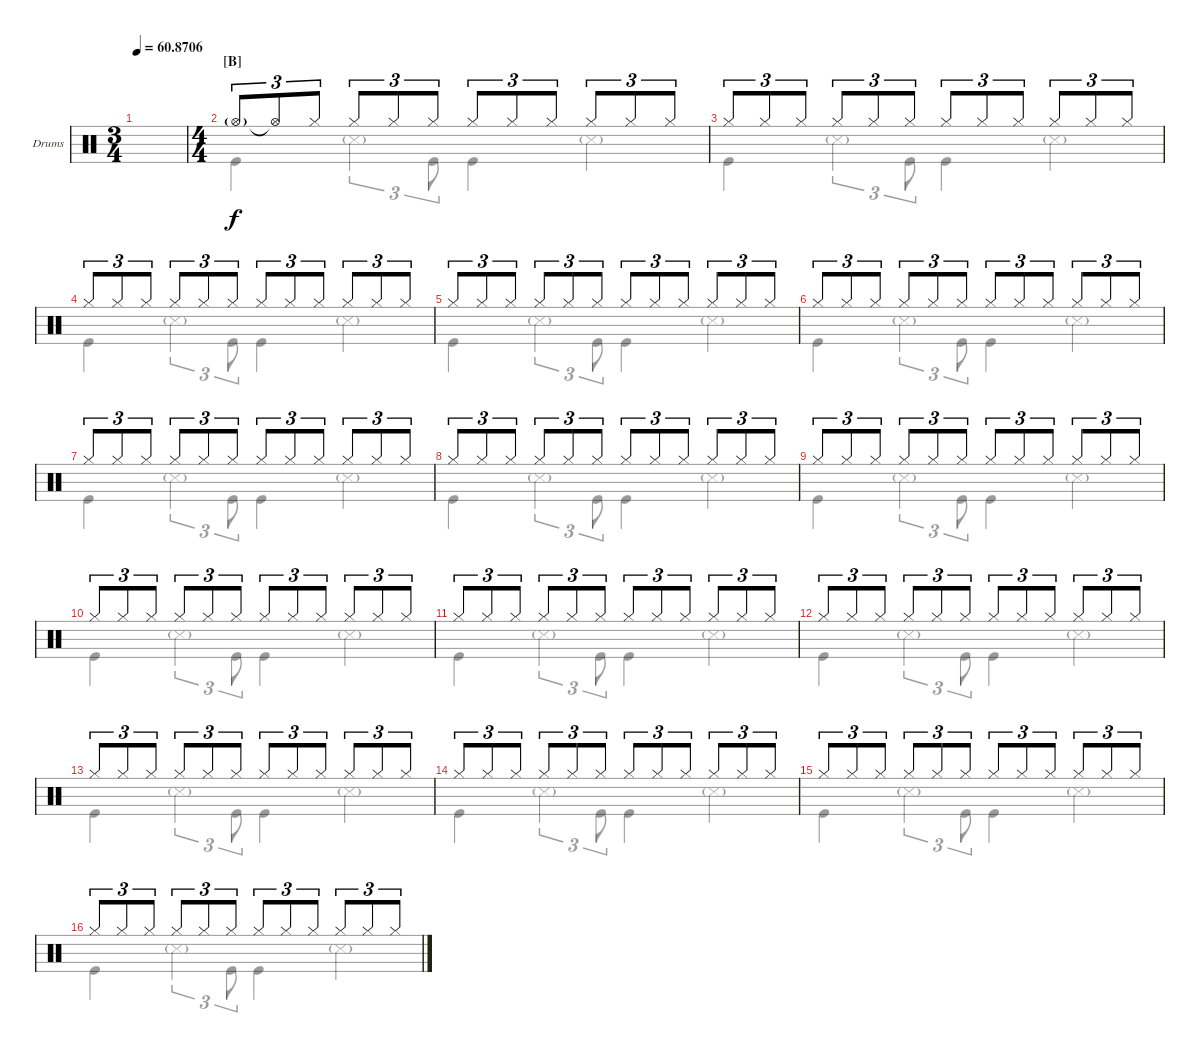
\defaultSystemsLayout 4
\bracketExtendMode nobrackets
\firstSystemTrackNameOrientation horizontal
\otherSystemsTrackNameOrientation horizontal
\track ("Drumkit" "Drums") {instrument percussion}
\staff {score}
\articulation defaults
\voice
\ts (3 4)
\tempo
60.8706
\accidentals auto
\clef neutral
\ottava regular
\simile none
\ks c
|
\ts (4 4)
\section ("B" "")
"Hi-Hat (open)"{g}.8{tu (3 2)} "Hi-Hat (open)"{t}.8{tu (3 2)} "Hi-Hat (closed)".8{tu (3 2)} "Hi-Hat (closed)".8{tu (3 2)} "Hi-Hat (closed)".8{tu (3 2)} "Hi-Hat (closed)".8{tu (3 2)} "Hi-Hat (closed)".8{tu (3 2)} "Hi-Hat (closed)".8{tu (3 2)} "Hi-Hat (closed)".8{tu (3 2)} "Hi-Hat (closed)".8{tu (3 2)} "Hi-Hat (closed)".8{tu (3 2)} "Hi-Hat (closed)".8{tu (3 2)} |
"Hi-Hat (closed)".8{tu (3 2)} "Hi-Hat (closed)".8{tu (3 2)} "Hi-Hat (closed)".8{tu (3 2)} "Hi-Hat (closed)".8{tu (3 2)} "Hi-Hat (closed)".8{tu (3 2)} "Hi-Hat (closed)".8{tu (3 2)} "Hi-Hat (closed)".8{tu (3 2)} "Hi-Hat (closed)".8{tu (3 2)} "Hi-Hat (closed)".8{tu (3 2)} "Hi-Hat (closed)".8{tu (3 2)} "Hi-Hat (closed)".8{tu (3 2)} "Hi-Hat (closed)".8{tu (3 2)} |
"Hi-Hat (closed)".8{tu (3 2)} "Hi-Hat (closed)".8{tu (3 2)} "Hi-Hat (closed)".8{tu (3 2)} "Hi-Hat (closed)".8{tu (3 2)} "Hi-Hat (closed)".8{tu (3 2)} "Hi-Hat (closed)".8{tu (3 2)} "Hi-Hat (closed)".8{tu (3 2)} "Hi-Hat (closed)".8{tu (3 2)} "Hi-Hat (closed)".8{tu (3 2)} "Hi-Hat (closed)".8{tu (3 2)} "Hi-Hat (closed)".8{tu (3 2)} "Hi-Hat (closed)".8{tu (3 2)} |
"Hi-Hat (closed)".8{tu (3 2)} "Hi-Hat (closed)".8{tu (3 2)} "Hi-Hat (closed)".8{tu (3 2)} "Hi-Hat (closed)".8{tu (3 2)} "Hi-Hat (closed)".8{tu (3 2)} "Hi-Hat (closed)".8{tu (3 2)} "Hi-Hat (closed)".8{tu (3 2)} "Hi-Hat (closed)".8{tu (3 2)} "Hi-Hat (closed)".8{tu (3 2)} "Hi-Hat (closed)".8{tu (3 2)} "Hi-Hat (closed)".8{tu (3 2)} "Hi-Hat (closed)".8{tu (3 2)} |
"Hi-Hat (closed)".8{tu (3 2)} "Hi-Hat (closed)".8{tu (3 2)} "Hi-Hat (closed)".8{tu (3 2)} "Hi-Hat (closed)".8{tu (3 2)} "Hi-Hat (closed)".8{tu (3 2)} "Hi-Hat (closed)".8{tu (3 2)} "Hi-Hat (closed)".8{tu (3 2)} "Hi-Hat (closed)".8{tu (3 2)} "Hi-Hat (closed)".8{tu (3 2)} "Hi-Hat (closed)".8{tu (3 2)} "Hi-Hat (closed)".8{tu (3 2)} "Hi-Hat (closed)".8{tu (3 2)} |
"Hi-Hat (closed)".8{tu (3 2)} "Hi-Hat (closed)".8{tu (3 2)} "Hi-Hat (closed)".8{tu (3 2)} "Hi-Hat (closed)".8{tu (3 2)} "Hi-Hat (closed)".8{tu (3 2)} "Hi-Hat (closed)".8{tu (3 2)} "Hi-Hat (closed)".8{tu (3 2)} "Hi-Hat (closed)".8{tu (3 2)} "Hi-Hat (closed)".8{tu (3 2)} "Hi-Hat (closed)".8{tu (3 2)} "Hi-Hat (closed)".8{tu (3 2)} "Hi-Hat (closed)".8{tu (3 2)} |
"Hi-Hat (closed)".8{tu (3 2)} "Hi-Hat (closed)".8{tu (3 2)} "Hi-Hat (closed)".8{tu (3 2)} "Hi-Hat (closed)".8{tu (3 2)} "Hi-Hat (closed)".8{tu (3 2)} "Hi-Hat (closed)".8{tu (3 2)} "Hi-Hat (closed)".8{tu (3 2)} "Hi-Hat (closed)".8{tu (3 2)} "Hi-Hat (closed)".8{tu (3 2)} "Hi-Hat (closed)".8{tu (3 2)} "Hi-Hat (closed)".8{tu (3 2)} "Hi-Hat (closed)".8{tu (3 2)} |
"Hi-Hat (closed)".8{tu (3 2)} "Hi-Hat (closed)".8{tu (3 2)} "Hi-Hat (closed)".8{tu (3 2)} "Hi-Hat (closed)".8{tu (3 2)} "Hi-Hat (closed)".8{tu (3 2)} "Hi-Hat (closed)".8{tu (3 2)} "Hi-Hat (closed)".8{tu (3 2)} "Hi-Hat (closed)".8{tu (3 2)} "Hi-Hat (closed)".8{tu (3 2)} "Hi-Hat (closed)".8{tu (3 2)} "Hi-Hat (closed)".8{tu (3 2)} "Hi-Hat (closed)".8{tu (3 2)} |
"Hi-Hat (closed)".8{tu (3 2)} "Hi-Hat (closed)".8{tu (3 2)} "Hi-Hat (closed)".8{tu (3 2)} "Hi-Hat (closed)".8{tu (3 2)} "Hi-Hat (closed)".8{tu (3 2)} "Hi-Hat (closed)".8{tu (3 2)} "Hi-Hat (closed)".8{tu (3 2)} "Hi-Hat (closed)".8{tu (3 2)} "Hi-Hat (closed)".8{tu (3 2)} "Hi-Hat (closed)".8{tu (3 2)} "Hi-Hat (closed)".8{tu (3 2)} "Hi-Hat (closed)".8{tu (3 2)} |
"Hi-Hat (closed)".8{tu (3 2)} "Hi-Hat (closed)".8{tu (3 2)} "Hi-Hat (closed)".8{tu (3 2)} "Hi-Hat (closed)".8{tu (3 2)} "Hi-Hat (closed)".8{tu (3 2)} "Hi-Hat (closed)".8{tu (3 2)} "Hi-Hat (closed)".8{tu (3 2)} "Hi-Hat (closed)".8{tu (3 2)} "Hi-Hat (closed)".8{tu (3 2)} "Hi-Hat (closed)".8{tu (3 2)} "Hi-Hat (closed)".8{tu (3 2)} "Hi-Hat (closed)".8{tu (3 2)} |
"Hi-Hat (closed)".8{tu (3 2)} "Hi-Hat (closed)".8{tu (3 2)} "Hi-Hat (closed)".8{tu (3 2)} "Hi-Hat (closed)".8{tu (3 2)} "Hi-Hat (closed)".8{tu (3 2)} "Hi-Hat (closed)".8{tu (3 2)} "Hi-Hat (closed)".8{tu (3 2)} "Hi-Hat (closed)".8{tu (3 2)} "Hi-Hat (closed)".8{tu (3 2)} "Hi-Hat (closed)".8{tu (3 2)} "Hi-Hat (closed)".8{tu (3 2)} "Hi-Hat (closed)".8{tu (3 2)} |
"Hi-Hat (closed)".8{tu (3 2)} "Hi-Hat (closed)".8{tu (3 2)} "Hi-Hat (closed)".8{tu (3 2)} "Hi-Hat (closed)".8{tu (3 2)} "Hi-Hat (closed)".8{tu (3 2)} "Hi-Hat (closed)".8{tu (3 2)} "Hi-Hat (closed)".8{tu (3 2)} "Hi-Hat (closed)".8{tu (3 2)} "Hi-Hat (closed)".8{tu (3 2)} "Hi-Hat (closed)".8{tu (3 2)} "Hi-Hat (closed)".8{tu (3 2)} "Hi-Hat (closed)".8{tu (3 2)} |
"Hi-Hat (closed)".8{tu (3 2)} "Hi-Hat (closed)".8{tu (3 2)} "Hi-Hat (closed)".8{tu (3 2)} "Hi-Hat (closed)".8{tu (3 2)} "Hi-Hat (closed)".8{tu (3 2)} "Hi-Hat (closed)".8{tu (3 2)} "Hi-Hat (closed)".8{tu (3 2)} "Hi-Hat (closed)".8{tu (3 2)} "Hi-Hat (closed)".8{tu (3 2)} "Hi-Hat (closed)".8{tu (3 2)} "Hi-Hat (closed)".8{tu (3 2)} "Hi-Hat (closed)".8{tu (3 2)} |
"Hi-Hat (closed)".8{tu (3 2)} "Hi-Hat (closed)".8{tu (3 2)} "Hi-Hat (closed)".8{tu (3 2)} "Hi-Hat (closed)".8{tu (3 2)} "Hi-Hat (closed)".8{tu (3 2)} "Hi-Hat (closed)".8{tu (3 2)} "Hi-Hat (closed)".8{tu (3 2)} "Hi-Hat (closed)".8{tu (3 2)} "Hi-Hat (closed)".8{tu (3 2)} "Hi-Hat (closed)".8{tu (3 2)} "Hi-Hat (closed)".8{tu (3 2)} "Hi-Hat (closed)".8{tu (3 2)} |
"Hi-Hat (closed)".8{tu (3 2)} "Hi-Hat (closed)".8{tu (3 2)} "Hi-Hat (closed)".8{tu (3 2)} "Hi-Hat (closed)".8{tu (3 2)} "Hi-Hat (closed)".8{tu (3 2)} "Hi-Hat (closed)".8{tu (3 2)} "Hi-Hat (closed)".8{tu (3 2)} "Hi-Hat (closed)".8{tu (3 2)} "Hi-Hat (closed)".8{tu (3 2)} "Hi-Hat (closed)".8{tu (3 2)} "Hi-Hat (closed)".8{tu (3 2)} "Hi-Hat (closed)".8{tu (3 2)}
\voice
\clef neutral
\ottava regular
\simile none
\ks c
|
"Kick (hit)".4 "Snare (side stick) 3"{g}.4{tu (3 2)} "Kick (hit)".8{tu (3 2)} "Kick (hit)".4 "Snare (side stick) 3"{g}.4 |
"Kick (hit)".4 "Snare (side stick) 3"{g}.4{tu (3 2)} "Kick (hit)".8{tu (3 2)} "Kick (hit)".4 "Snare (side stick) 3"{g}.4 |
"Kick (hit)".4 "Snare (side stick) 3"{g}.4{tu (3 2)} "Kick (hit)".8{tu (3 2)} "Kick (hit)".4 "Snare (side stick) 3"{g}.4 |
"Kick (hit)".4 "Snare (side stick) 3"{g}.4{tu (3 2)} "Kick (hit)".8{tu (3 2)} "Kick (hit)".4 "Snare (side stick) 3"{g}.4 |
"Kick (hit)".4 "Snare (side stick) 3"{g}.4{tu (3 2)} "Kick (hit)".8{tu (3 2)} "Kick (hit)".4 "Snare (side stick) 3"{g}.4 |
"Kick (hit)".4 "Snare (side stick) 3"{g}.4{tu (3 2)} "Kick (hit)".8{tu (3 2)} "Kick (hit)".4 "Snare (side stick) 3"{g}.4 |
"Kick (hit)".4 "Snare (side stick) 3"{g}.4{tu (3 2)} "Kick (hit)".8{tu (3 2)} "Kick (hit)".4 "Snare (side stick) 3"{g}.4 |
"Kick (hit)".4 "Snare (side stick) 3"{g}.4{tu (3 2)} "Kick (hit)".8{tu (3 2)} "Kick (hit)".4 "Snare (side stick) 3"{g}.4 |
"Kick (hit)".4 "Snare (side stick) 3"{g}.4{tu (3 2)} "Kick (hit)".8{tu (3 2)} "Kick (hit)".4 "Snare (side stick) 3"{g}.4 |
"Kick (hit)".4 "Snare (side stick) 3"{g}.4{tu (3 2)} "Kick (hit)".8{tu (3 2)} "Kick (hit)".4 "Snare (side stick) 3"{g}.4 |
"Kick (hit)".4 "Snare (side stick) 3"{g}.4{tu (3 2)} "Kick (hit)".8{tu (3 2)} "Kick (hit)".4 "Snare (side stick) 3"{g}.4 |
"Kick (hit)".4 "Snare (side stick) 3"{g}.4{tu (3 2)} "Kick (hit)".8{tu (3 2)} "Kick (hit)".4 "Snare (side stick) 3"{g}.4 |
"Kick (hit)".4 "Snare (side stick) 3"{g}.4{tu (3 2)} "Kick (hit)".8{tu (3 2)} "Kick (hit)".4 "Snare (side stick) 3"{g}.4 |
"Kick (hit)".4 "Snare (side stick) 3"{g}.4{tu (3 2)} "Kick (hit)".8{tu (3 2)} "Kick (hit)".4 "Snare (side stick) 3"{g}.4 |
"Kick (hit)".4 "Snare (side stick) 3"{g}.4{tu (3 2)} "Kick (hit)".8{tu (3 2)} "Kick (hit)".4 "Snare (side stick) 3"{g}.4
